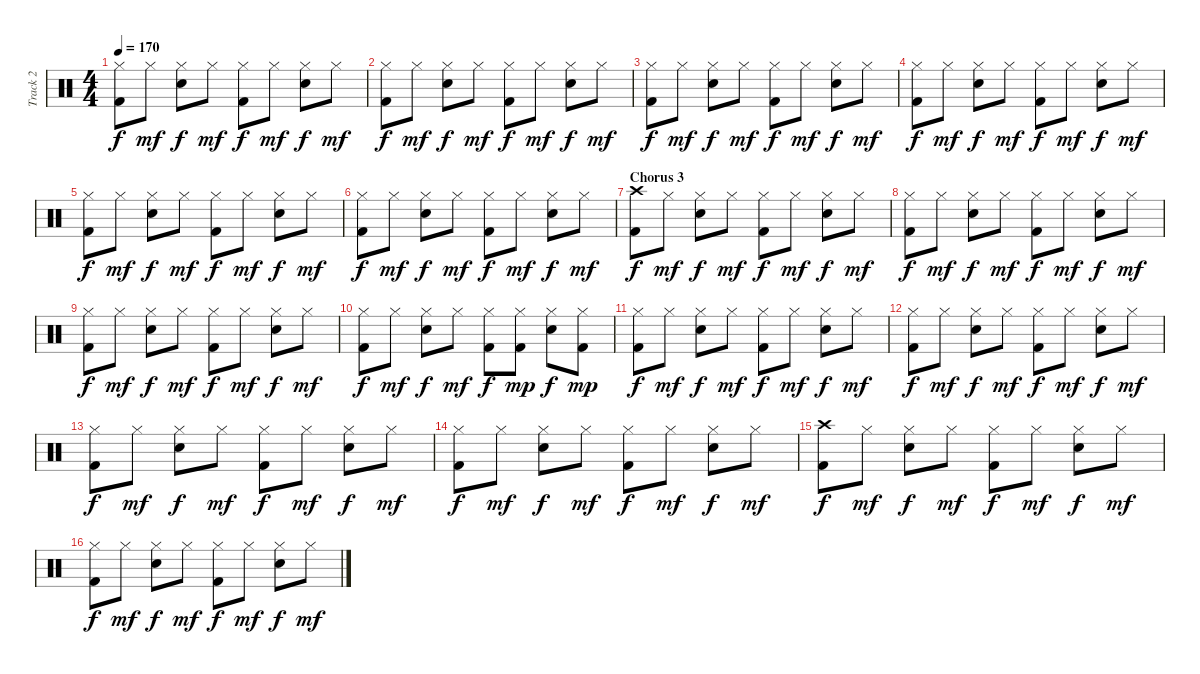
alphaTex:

\track ("Track 2" "Track 2") {instrument percussion}
\staff {score}
\articulation defaults
\ts (4 4)
\tempo 170
\clef neutral
\ks c
("Hi-Hat (closed)" "Kick (hit) 2").8{dy f} "Hi-Hat (closed)".8{dy mf} ("Hi-Hat (closed)" "Electric Snare (hit)").8{dy f} "Hi-Hat (closed)".8{dy mf} ("Hi-Hat (closed)" "Kick (hit) 2").8{dy f} "Hi-Hat (closed)".8{dy mf} ("Hi-Hat (closed)" "Electric Snare (hit)").8{dy f} "Hi-Hat (closed)".8{dy mf} |
("Hi-Hat (closed)" "Kick (hit) 2").8{dy f} "Hi-Hat (closed)".8{dy mf} ("Hi-Hat (closed)" "Electric Snare (hit)").8{dy f} "Hi-Hat (closed)".8{dy mf} ("Hi-Hat (closed)" "Kick (hit) 2").8{dy f} "Hi-Hat (closed)".8{dy mf} ("Hi-Hat (closed)" "Electric Snare (hit)").8{dy f} "Hi-Hat (closed)".8{dy mf} |
("Hi-Hat (closed)" "Kick (hit) 2").8{dy f} "Hi-Hat (closed)".8{dy mf} ("Hi-Hat (closed)" "Electric Snare (hit)").8{dy f} "Hi-Hat (closed)".8{dy mf} ("Hi-Hat (closed)" "Kick (hit) 2").8{dy f} "Hi-Hat (closed)".8{dy mf} ("Hi-Hat (closed)" "Electric Snare (hit)").8{dy f} "Hi-Hat (closed)".8{dy mf} |
("Hi-Hat (closed)" "Kick (hit) 2").8{dy f} "Hi-Hat (closed)".8{dy mf} ("Hi-Hat (closed)" "Electric Snare (hit)").8{dy f} "Hi-Hat (closed)".8{dy mf} ("Hi-Hat (closed)" "Kick (hit) 2").8{dy f} "Hi-Hat (closed)".8{dy mf} ("Hi-Hat (closed)" "Electric Snare (hit)").8{dy f} "Hi-Hat (closed)".8{dy mf} |
("Hi-Hat (closed)" "Kick (hit) 2").8{dy f} "Hi-Hat (closed)".8{dy mf} ("Hi-Hat (closed)" "Electric Snare (hit)").8{dy f} "Hi-Hat (closed)".8{dy mf} ("Hi-Hat (closed)" "Kick (hit) 2").8{dy f} "Hi-Hat (closed)".8{dy mf} ("Hi-Hat (closed)" "Electric Snare (hit)").8{dy f} "Hi-Hat (closed)".8{dy mf} |
("Hi-Hat (closed)" "Kick (hit) 2").8{dy f} "Hi-Hat (closed)".8{dy mf} ("Hi-Hat (closed)" "Electric Snare (hit)").8{dy f} "Hi-Hat (closed)".8{dy mf} ("Hi-Hat (closed)" "Kick (hit) 2").8{dy f} "Hi-Hat (closed)".8{dy mf} ("Hi-Hat (closed)" "Electric Snare (hit)").8{dy f} "Hi-Hat (closed)".8{dy mf} |
\section ("" "Chorus 3")
("Crash high (hit)" "Kick (hit) 2").8{dy f} "Hi-Hat (closed)".8{dy mf} ("Hi-Hat (closed)" "Electric Snare (hit)").8{dy f} "Hi-Hat (closed)".8{dy mf} ("Hi-Hat (closed)" "Kick (hit) 2").8{dy f} "Hi-Hat (closed)".8{dy mf} ("Hi-Hat (closed)" "Electric Snare (hit)").8{dy f} "Hi-Hat (closed)".8{dy mf} |
("Hi-Hat (closed)" "Kick (hit) 2").8{dy f} "Hi-Hat (closed)".8{dy mf} ("Hi-Hat (closed)" "Electric Snare (hit)").8{dy f} "Hi-Hat (closed)".8{dy mf} ("Hi-Hat (closed)" "Kick (hit) 2").8{dy f} "Hi-Hat (closed)".8{dy mf} ("Hi-Hat (closed)" "Electric Snare (hit)").8{dy f} "Hi-Hat (closed)".8{dy mf} |
("Hi-Hat (closed)" "Kick (hit) 2").8{dy f} "Hi-Hat (closed)".8{dy mf} ("Hi-Hat (closed)" "Electric Snare (hit)").8{dy f} "Hi-Hat (closed)".8{dy mf} ("Hi-Hat (closed)" "Kick (hit) 2").8{dy f} "Hi-Hat (closed)".8{dy mf} ("Hi-Hat (closed)" "Electric Snare (hit)").8{dy f} "Hi-Hat (closed)".8{dy mf} |
("Hi-Hat (closed)" "Kick (hit) 2").8{dy f} "Hi-Hat (closed)".8{dy mf} ("Hi-Hat (closed)" "Electric Snare (hit)").8{dy f} "Hi-Hat (closed)".8{dy mf} ("Hi-Hat (closed)" "Kick (hit) 2").8{dy f} ("Hi-Hat (closed)" "Kick (hit) 2").8{dy mp} ("Hi-Hat (closed)" "Electric Snare (hit)").8{dy f} ("Hi-Hat (closed)" "Kick (hit) 2").8{dy mp} |
("Hi-Hat (closed)" "Kick (hit) 2").8{dy f} "Hi-Hat (closed)".8{dy mf} ("Hi-Hat (closed)" "Electric Snare (hit)").8{dy f} "Hi-Hat (closed)".8{dy mf} ("Hi-Hat (closed)" "Kick (hit) 2").8{dy f} "Hi-Hat (closed)".8{dy mf} ("Hi-Hat (closed)" "Electric Snare (hit)").8{dy f} "Hi-Hat (closed)".8{dy mf} |
("Hi-Hat (closed)" "Kick (hit) 2").8{dy f} "Hi-Hat (closed)".8{dy mf} ("Hi-Hat (closed)" "Electric Snare (hit)").8{dy f} "Hi-Hat (closed)".8{dy mf} ("Hi-Hat (closed)" "Kick (hit) 2").8{dy f} "Hi-Hat (closed)".8{dy mf} ("Hi-Hat (closed)" "Electric Snare (hit)").8{dy f} "Hi-Hat (closed)".8{dy mf} |
("Hi-Hat (closed)" "Kick (hit) 2").8{dy f} "Hi-Hat (closed)".8{dy mf} ("Hi-Hat (closed)" "Electric Snare (hit)").8{dy f} "Hi-Hat (closed)".8{dy mf} ("Hi-Hat (closed)" "Kick (hit) 2").8{dy f} "Hi-Hat (closed)".8{dy mf} ("Hi-Hat (closed)" "Electric Snare (hit)").8{dy f} "Hi-Hat (closed)".8{dy mf} |
("Hi-Hat (closed)" "Kick (hit) 2").8{dy f} "Hi-Hat (closed)".8{dy mf} ("Hi-Hat (closed)" "Electric Snare (hit)").8{dy f} "Hi-Hat (closed)".8{dy mf} ("Hi-Hat (closed)" "Kick (hit) 2").8{dy f} "Hi-Hat (closed)".8{dy mf} ("Hi-Hat (closed)" "Electric Snare (hit)").8{dy f} "Hi-Hat (closed)".8{dy mf} |
("Crash high (hit)" "Kick (hit) 2").8{dy f} "Hi-Hat (closed)".8{dy mf} ("Hi-Hat (closed)" "Electric Snare (hit)").8{dy f} "Hi-Hat (closed)".8{dy mf} ("Hi-Hat (closed)" "Kick (hit) 2").8{dy f} "Hi-Hat (closed)".8{dy mf} ("Hi-Hat (closed)" "Electric Snare (hit)").8{dy f} "Hi-Hat (closed)".8{dy mf} |
("Hi-Hat (closed)" "Kick (hit) 2").8{dy f} "Hi-Hat (closed)".8{dy mf} ("Hi-Hat (closed)" "Electric Snare (hit)").8{dy f} "Hi-Hat (closed)".8{dy mf} ("Hi-Hat (closed)" "Kick (hit) 2").8{dy f} "Hi-Hat (closed)".8{dy mf} ("Hi-Hat (closed)" "Electric Snare (hit)").8{dy f} "Hi-Hat (closed)".8{dy mf}
